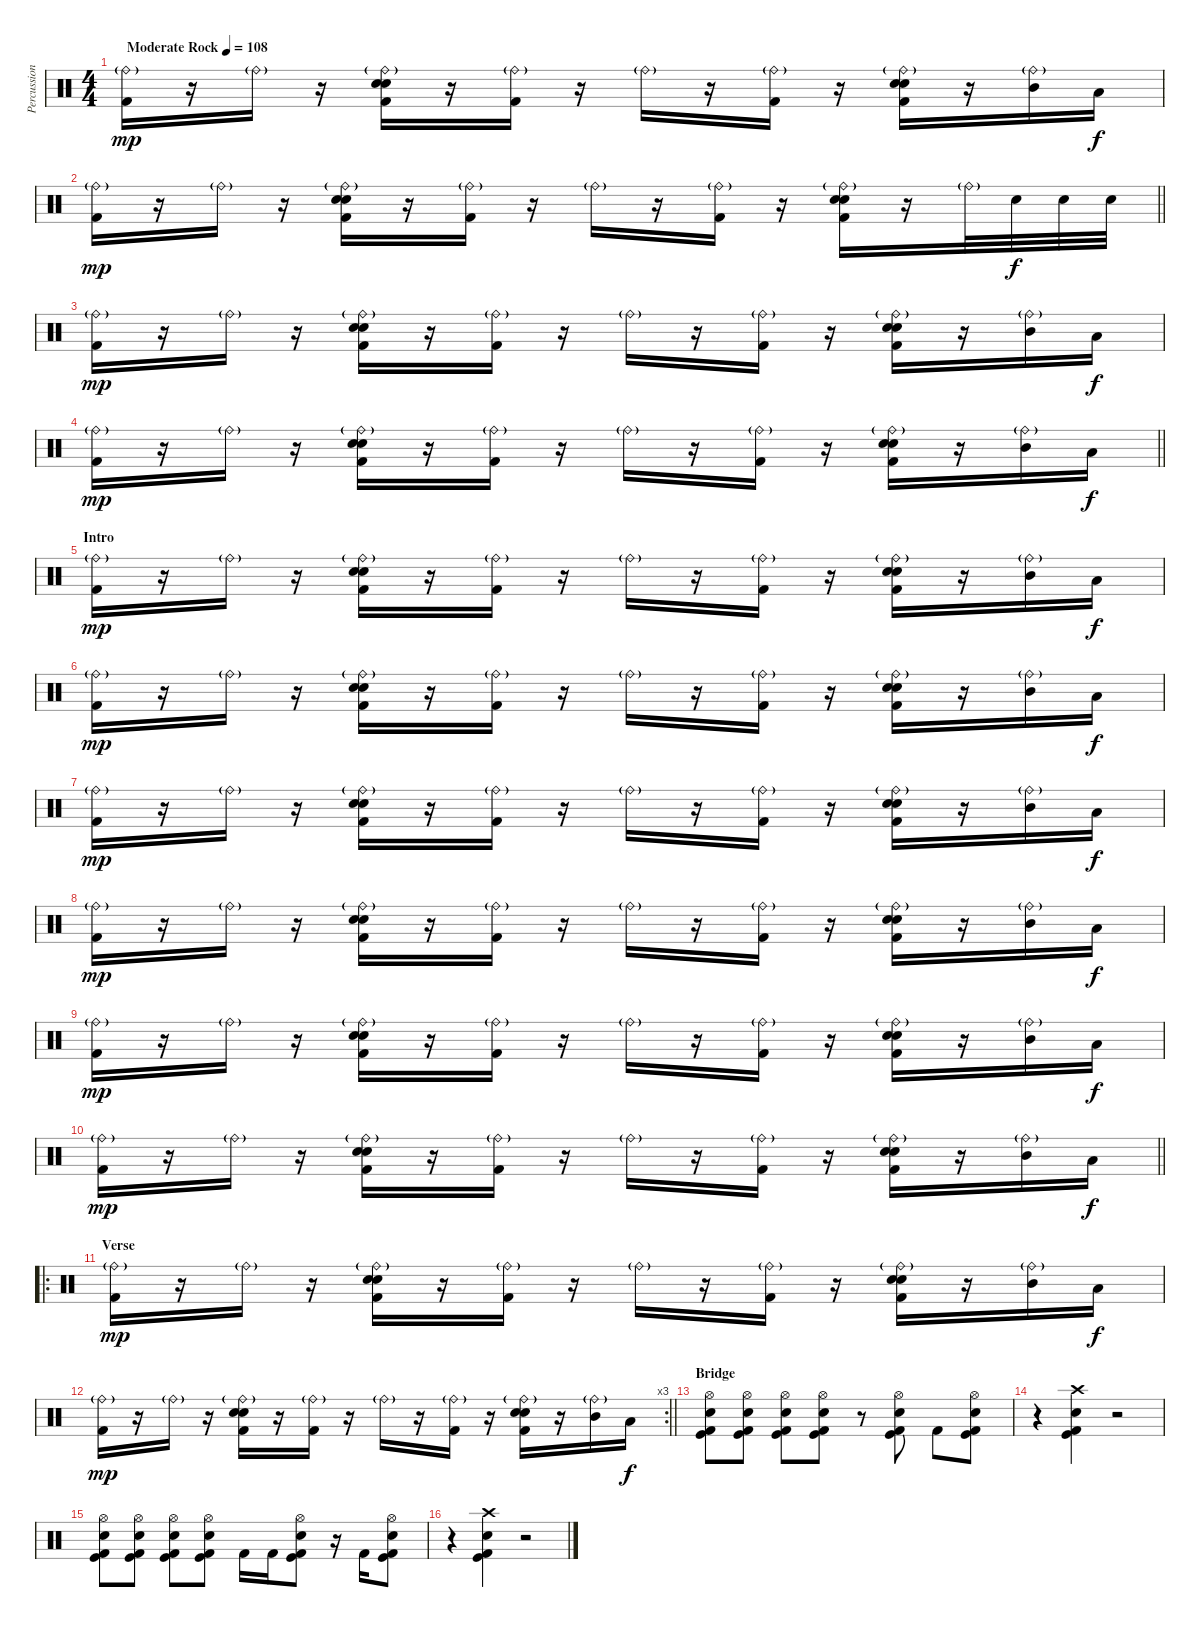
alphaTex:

\track ("Percussion" "Percussion") {instrument percussion}
\staff {score}
\articulation defaults
\ts (4 4)
\tempo (108 "Moderate Rock")
\clef neutral
\ks c
("Ride (bell)"{g} "Kick (hit) 2").16{dy mp} r.16 "Ride (bell)"{g}.16 r.16 ("Ride (bell)"{g} "Kick (hit) 2" "Snare (hit) 2" "Electric Snare (hit)").16 r.16 ("Ride (bell)"{g} "Kick (hit) 2").16 r.16 "Ride (bell)"{g}.16 r.16 ("Ride (bell)"{g} "Kick (hit) 2").16 r.16 ("Ride (bell)"{g} "Kick (hit) 2" "Snare (hit) 2" "Electric Snare (hit)").16 r.16 ("Ride (bell)"{g} "Mid Tom (hit)").16 "Low Tom (hit)".16{dy f} |
\barLineRight lightlight
("Ride (bell)"{g} "Kick (hit) 2").16{dy mp} r.16 "Ride (bell)"{g}.16 r.16 ("Ride (bell)"{g} "Kick (hit) 2" "Snare (hit) 2" "Electric Snare (hit)").16 r.16 ("Ride (bell)"{g} "Kick (hit) 2").16 r.16 "Ride (bell)"{g}.16 r.16 ("Ride (bell)"{g} "Kick (hit) 2").16 r.16 ("Ride (bell)"{g} "Kick (hit) 2" "Snare (hit) 2" "Electric Snare (hit)").16 r.16 "Ride (bell)"{g}.32 "Snare (hit) 2".32{dy f} "Snare (hit) 2".32 "Snare (hit) 2".32 |
("Ride (bell)"{g} "Kick (hit) 2").16{dy mp} r.16 "Ride (bell)"{g}.16 r.16 ("Ride (bell)"{g} "Kick (hit) 2" "Snare (hit) 2" "Electric Snare (hit)").16 r.16 ("Ride (bell)"{g} "Kick (hit) 2").16 r.16 "Ride (bell)"{g}.16 r.16 ("Ride (bell)"{g} "Kick (hit) 2").16 r.16 ("Ride (bell)"{g} "Kick (hit) 2" "Snare (hit) 2" "Electric Snare (hit)").16 r.16 ("Ride (bell)"{g} "Mid Tom (hit)").16 "Low Tom (hit)".16{dy f} |
\barLineRight lightlight
("Ride (bell)"{g} "Kick (hit) 2").16{dy mp} r.16 "Ride (bell)"{g}.16 r.16 ("Ride (bell)"{g} "Kick (hit) 2" "Snare (hit) 2" "Electric Snare (hit)").16 r.16 ("Ride (bell)"{g} "Kick (hit) 2").16 r.16 "Ride (bell)"{g}.16 r.16 ("Ride (bell)"{g} "Kick (hit) 2").16 r.16 ("Ride (bell)"{g} "Kick (hit) 2" "Snare (hit) 2" "Electric Snare (hit)").16 r.16 ("Ride (bell)"{g} "Mid Tom (hit)").16 "Low Tom (hit)".16{dy f} |
\section ("" "Intro")
("Ride (bell)"{g} "Kick (hit) 2").16{dy mp} r.16 "Ride (bell)"{g}.16 r.16 ("Ride (bell)"{g} "Kick (hit) 2" "Snare (hit) 2" "Electric Snare (hit)").16 r.16 ("Ride (bell)"{g} "Kick (hit) 2").16 r.16 "Ride (bell)"{g}.16 r.16 ("Ride (bell)"{g} "Kick (hit) 2").16 r.16 ("Ride (bell)"{g} "Kick (hit) 2" "Snare (hit) 2" "Electric Snare (hit)").16 r.16 ("Ride (bell)"{g} "Mid Tom (hit)").16 "Low Tom (hit)".16{dy f} |
("Ride (bell)"{g} "Kick (hit) 2").16{dy mp} r.16 "Ride (bell)"{g}.16 r.16 ("Ride (bell)"{g} "Kick (hit) 2" "Snare (hit) 2" "Electric Snare (hit)").16 r.16 ("Ride (bell)"{g} "Kick (hit) 2").16 r.16 "Ride (bell)"{g}.16 r.16 ("Ride (bell)"{g} "Kick (hit) 2").16 r.16 ("Ride (bell)"{g} "Kick (hit) 2" "Snare (hit) 2" "Electric Snare (hit)").16 r.16 ("Ride (bell)"{g} "Mid Tom (hit)").16 "Low Tom (hit)".16{dy f} |
("Ride (bell)"{g} "Kick (hit) 2").16{dy mp} r.16 "Ride (bell)"{g}.16 r.16 ("Ride (bell)"{g} "Kick (hit) 2" "Snare (hit) 2" "Electric Snare (hit)").16 r.16 ("Ride (bell)"{g} "Kick (hit) 2").16 r.16 "Ride (bell)"{g}.16 r.16 ("Ride (bell)"{g} "Kick (hit) 2").16 r.16 ("Ride (bell)"{g} "Kick (hit) 2" "Snare (hit) 2" "Electric Snare (hit)").16 r.16 ("Ride (bell)"{g} "Mid Tom (hit)").16 "Low Tom (hit)".16{dy f} |
("Ride (bell)"{g} "Kick (hit) 2").16{dy mp} r.16 "Ride (bell)"{g}.16 r.16 ("Ride (bell)"{g} "Kick (hit) 2" "Snare (hit) 2" "Electric Snare (hit)").16 r.16 ("Ride (bell)"{g} "Kick (hit) 2").16 r.16 "Ride (bell)"{g}.16 r.16 ("Ride (bell)"{g} "Kick (hit) 2").16 r.16 ("Ride (bell)"{g} "Kick (hit) 2" "Snare (hit) 2" "Electric Snare (hit)").16 r.16 ("Ride (bell)"{g} "Mid Tom (hit)").16 "Low Tom (hit)".16{dy f} |
("Ride (bell)"{g} "Kick (hit) 2").16{dy mp} r.16 "Ride (bell)"{g}.16 r.16 ("Ride (bell)"{g} "Kick (hit) 2" "Snare (hit) 2" "Electric Snare (hit)").16 r.16 ("Ride (bell)"{g} "Kick (hit) 2").16 r.16 "Ride (bell)"{g}.16 r.16 ("Ride (bell)"{g} "Kick (hit) 2").16 r.16 ("Ride (bell)"{g} "Kick (hit) 2" "Snare (hit) 2" "Electric Snare (hit)").16 r.16 ("Ride (bell)"{g} "Mid Tom (hit)").16 "Low Tom (hit)".16{dy f} |
\barLineRight lightlight
("Ride (bell)"{g} "Kick (hit) 2").16{dy mp} r.16 "Ride (bell)"{g}.16 r.16 ("Ride (bell)"{g} "Kick (hit) 2" "Snare (hit) 2" "Electric Snare (hit)").16 r.16 ("Ride (bell)"{g} "Kick (hit) 2").16 r.16 "Ride (bell)"{g}.16 r.16 ("Ride (bell)"{g} "Kick (hit) 2").16 r.16 ("Ride (bell)"{g} "Kick (hit) 2" "Snare (hit) 2" "Electric Snare (hit)").16 r.16 ("Ride (bell)"{g} "Mid Tom (hit)").16 "Low Tom (hit)".16{dy f} |
\ro
\section ("" "Verse")
("Ride (bell)"{g} "Kick (hit) 2").16{dy mp} r.16 "Ride (bell)"{g}.16 r.16 ("Ride (bell)"{g} "Kick (hit) 2" "Snare (hit) 2" "Electric Snare (hit)").16 r.16 ("Ride (bell)"{g} "Kick (hit) 2").16 r.16 "Ride (bell)"{g}.16 r.16 ("Ride (bell)"{g} "Kick (hit) 2").16 r.16 ("Ride (bell)"{g} "Kick (hit) 2" "Snare (hit) 2" "Electric Snare (hit)").16 r.16 ("Ride (bell)"{g} "Mid Tom (hit)").16 "Low Tom (hit)".16{dy f} |
\rc 3
\barLineRight lightlight
("Ride (bell)"{g} "Kick (hit) 2").16{dy mp} r.16 "Ride (bell)"{g}.16 r.16 ("Ride (bell)"{g} "Kick (hit) 2" "Snare (hit) 2" "Electric Snare (hit)").16 r.16 ("Ride (bell)"{g} "Kick (hit) 2").16 r.16 "Ride (bell)"{g}.16 r.16 ("Ride (bell)"{g} "Kick (hit) 2").16 r.16 ("Ride (bell)"{g} "Kick (hit) 2" "Snare (hit) 2" "Electric Snare (hit)").16 r.16 ("Ride (bell)"{g} "Mid Tom (hit)").16 "Low Tom (hit)".16{dy f} |
\section ("" "Bridge")
("Kick (hit)" "Kick (hit) 2" "Snare (hit) 2" "Hi-Hat (open)").8 ("Kick (hit)" "Kick (hit) 2" "Snare (hit) 2" "Hi-Hat (open)").8 ("Kick (hit)" "Kick (hit) 2" "Snare (hit) 2" "Hi-Hat (open)").8 ("Kick (hit)" "Kick (hit) 2" "Snare (hit) 2" "Hi-Hat (open)").8 r.8 ("Kick (hit)" "Kick (hit) 2" "Snare (hit) 2" "Hi-Hat (open)").8 "Kick (hit) 2".8 ("Kick (hit)" "Kick (hit) 2" "Snare (hit) 2" "Hi-Hat (open)").8 |
r.4 ("Kick (hit)" "Kick (hit) 2" "Snare (hit) 2" "Crash high (hit)").4 r.2 |
("Kick (hit)" "Kick (hit) 2" "Snare (hit) 2" "Hi-Hat (open)").8 ("Kick (hit)" "Kick (hit) 2" "Snare (hit) 2" "Hi-Hat (open)").8 ("Kick (hit)" "Kick (hit) 2" "Snare (hit) 2" "Hi-Hat (open)").8 ("Kick (hit)" "Kick (hit) 2" "Snare (hit) 2" "Hi-Hat (open)").8 "Kick (hit) 2".16 "Kick (hit) 2".16 ("Kick (hit)" "Kick (hit) 2" "Snare (hit) 2" "Hi-Hat (open)").8 r.16 "Kick (hit) 2".16 ("Kick (hit)" "Kick (hit) 2" "Snare (hit) 2" "Hi-Hat (open)").8 |
r.4 ("Kick (hit)" "Kick (hit) 2" "Snare (hit) 2" "Crash high (hit)").4 r.2
